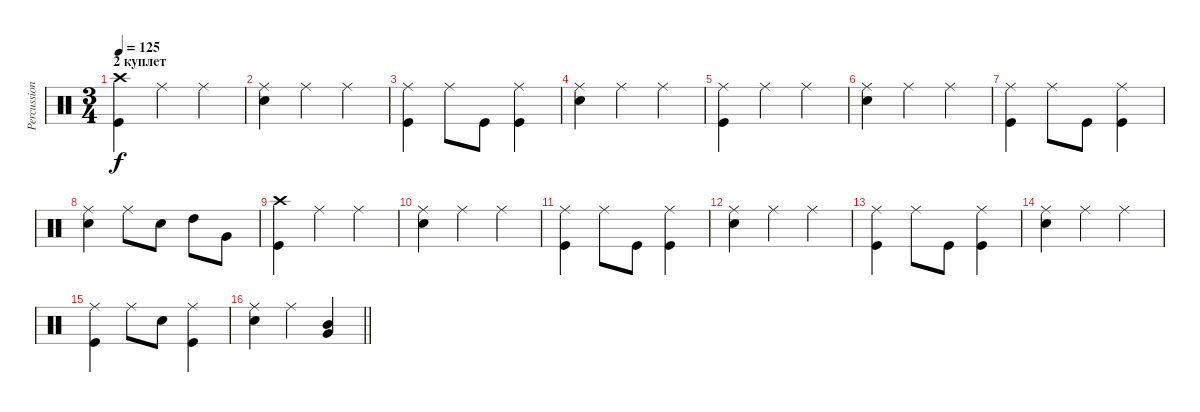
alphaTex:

\track ("Percussion" "Percussion") {instrument percussion}
\staff {score}
\articulation defaults
\ts (3 4)
\section ("" "2 куплет")
\tempo 125
\clef neutral
\ks c
("Crash high (hit)" "Kick (hit)").4{dy f} "Ride (middle)".4 "Ride (middle)".4 |
("Ride (middle)" "Snare (hit) 2").4 "Ride (middle)".4 "Ride (middle)".4 |
("Ride (middle)" "Kick (hit)").4 "Ride (middle)".8 "Kick (hit)".8 ("Ride (middle)" "Kick (hit)").4 |
("Ride (middle)" "Snare (hit) 2").4 "Ride (middle)".4 "Ride (middle)".4 |
("Ride (middle)" "Kick (hit)").4 "Ride (middle)".4 "Ride (middle)".4 |
("Ride (middle)" "Snare (hit) 2").4 "Ride (middle)".4 "Ride (middle)".4 |
("Ride (middle)" "Kick (hit)").4 "Ride (middle)".8 "Kick (hit)".8 ("Ride (middle)" "Kick (hit)").4 |
("Ride (middle)" "Snare (hit) 2").4 "Ride (middle)".8 "Snare (hit) 2".8 "High Tom (hit)".8 "Very Low Tom (hit)".8 |
("Crash high (hit)" "Kick (hit)").4 "Ride (middle)".4 "Ride (middle)".4 |
("Ride (middle)" "Snare (hit) 2").4 "Ride (middle)".4 "Ride (middle)".4 |
("Ride (middle)" "Kick (hit)").4 "Ride (middle)".8 "Kick (hit)".8 ("Ride (middle)" "Kick (hit)").4 |
("Ride (middle)" "Snare (hit) 2").4 "Ride (middle)".4 "Ride (middle)".4 |
("Ride (middle)" "Kick (hit)").4 "Ride (middle)".8 "Kick (hit)".8 ("Ride (middle)" "Kick (hit)").4 |
("Ride (middle)" "Snare (hit) 2").4 "Ride (middle)".4 "Ride (middle)".4 |
("Ride (middle)" "Kick (hit)").4 "Ride (middle)".8 "Snare (hit) 2".8 ("Ride (middle)" "Kick (hit)").4 |
\barLineRight lightlight
("Ride (middle)" "Snare (hit) 2").4 "Ride (middle)".4 ("Mid Tom (hit)" "Very Low Tom (hit)").4
